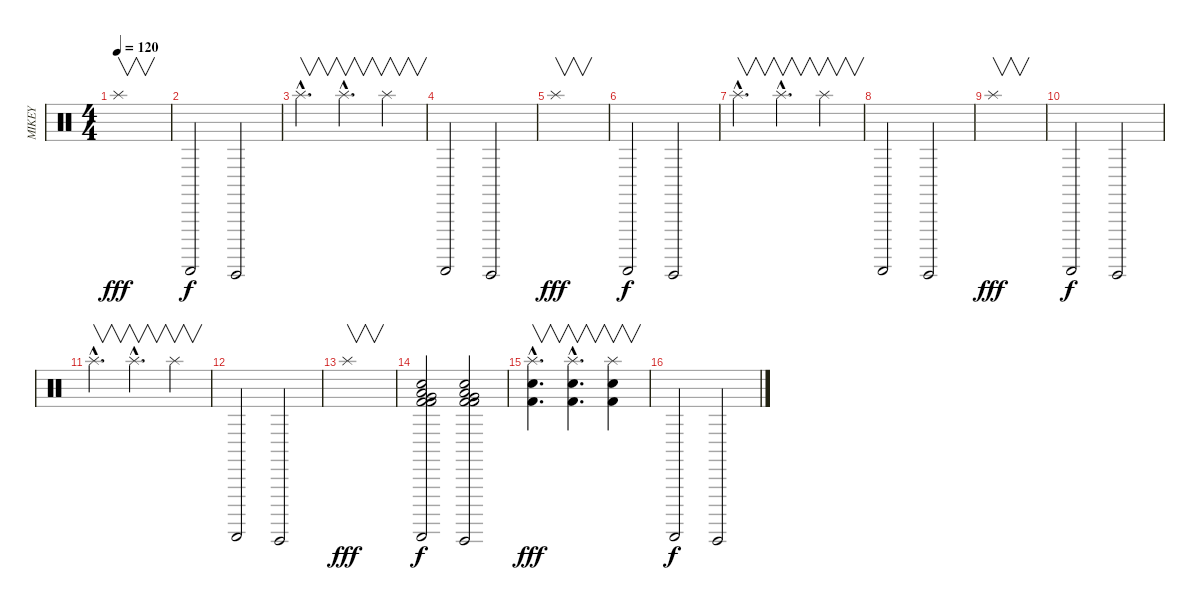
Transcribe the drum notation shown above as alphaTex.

\track ("MIKEY" "MIKEY") {instrument percussion}
\staff {score}
\articulation defaults
\ts (4 4)
\tempo 120
\clef neutral
\ks c "Splash (hit)".1{v dy fff}
|
"Guiro (scrap-return)".2{dy f} "Guiro (hit)".2 |
"Splash (hit)"{hac}.4{v d} "Splash (hit)"{hac}.4{v d} "Splash (hit)".4{v} |
"Guiro (scrap-return)".2 "Guiro (hit)".2 |
"Splash (hit)".1{v dy fff} |
"Guiro (scrap-return)".2{dy f} "Guiro (hit)".2 |
"Splash (hit)"{hac}.4{v d} "Splash (hit)"{hac}.4{v d} "Splash (hit)".4{v} |
"Guiro (scrap-return)".2 "Guiro (hit)".2 |
"Splash (hit)".1{v dy fff} |
"Guiro (scrap-return)".2{dy f} "Guiro (hit)".2 |
"Splash (hit)"{hac}.4{v d} "Splash (hit)"{hac}.4{v d} "Splash (hit)".4{v} |
"Guiro (scrap-return)".2 "Guiro (hit)".2 |
"Splash (hit)".1{v dy fff} |
("Kick (hit) 2" "Low Tom (hit)" "Very Low Tom (hit)" "Snare (hit) 2" "Kick (hit) 2" "Guiro (scrap-return)").2{dy f} ("Kick (hit) 2" "Low Tom (hit)" "Very Low Tom (hit)" "Snare (hit) 2" "Kick (hit) 2" "Guiro (hit)").2 |
("Snare (hit) 2"{hac} "Kick (hit) 2"{hac} "Splash (hit)"{hac}).4{v d dy fff} ("Snare (hit) 2"{hac} "Kick (hit) 2"{hac} "Splash (hit)"{hac}).4{v d} ("Snare (hit) 2" "Kick (hit) 2" "Splash (hit)").4{v} |
"Guiro (scrap-return)".2{dy f} "Guiro (hit)".2
